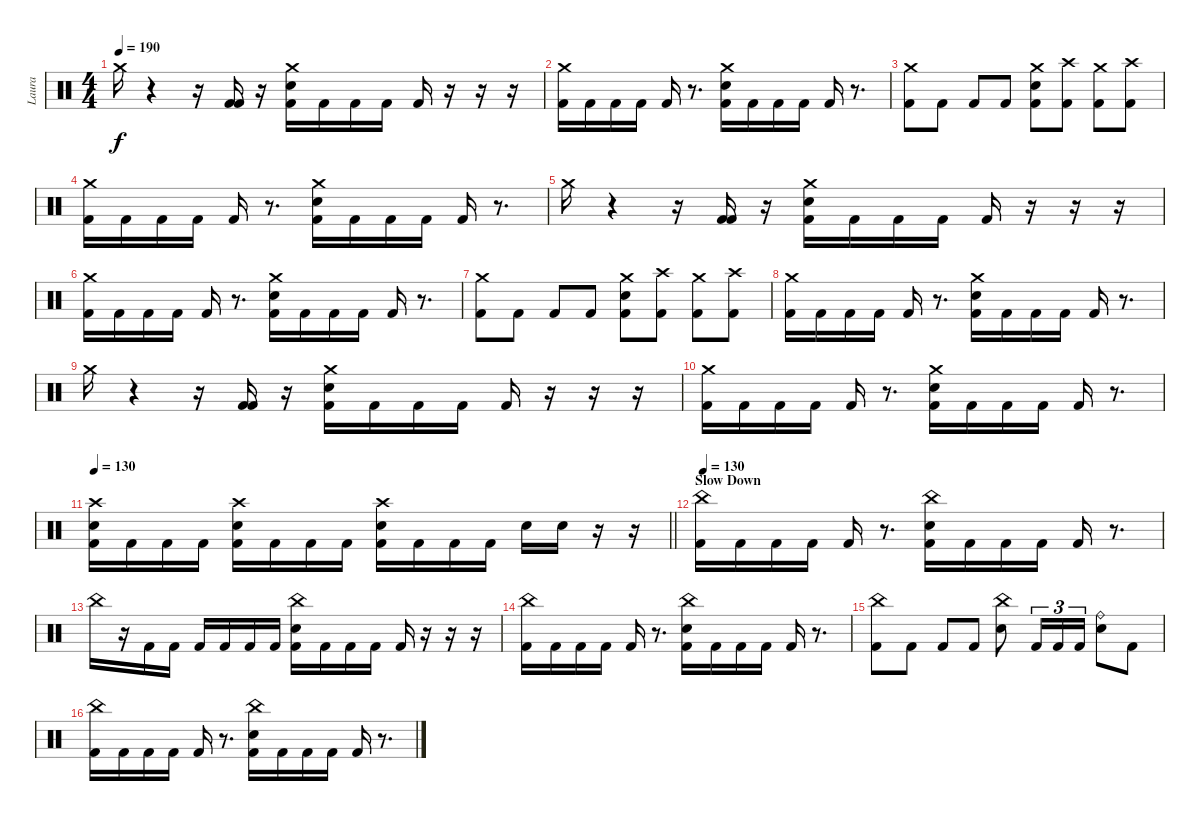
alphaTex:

\track ("Laura" "Laura") {instrument percussion}
\staff {score}
\articulation defaults
\ts (4 4)
\tempo 190
\clef neutral
\ks c "Crash medium (hit)".16{dy f}
r.4 r.16 ("Kick (hit) 2" "Kick (hit) 2").16 r.16 ("Crash medium (hit)" "Electric Snare (hit)" "Kick (hit) 2").16 "Kick (hit) 2".16 "Kick (hit) 2".16 "Kick (hit) 2".16 "Kick (hit) 2".16 r.16 r.16 r.16 |
("Crash medium (hit)" "Kick (hit) 2").16 "Kick (hit) 2".16 "Kick (hit) 2".16 "Kick (hit) 2".16 "Kick (hit) 2".16 r.8{d} ("Crash medium (hit)" "Electric Snare (hit)" "Kick (hit) 2").16 "Kick (hit) 2".16 "Kick (hit) 2".16 "Kick (hit) 2".16 "Kick (hit) 2".16 r.8{d} |
("Crash medium (hit)" "Kick (hit) 2").8 "Kick (hit) 2".8 "Kick (hit) 2".8 "Kick (hit) 2".8 ("Crash medium (hit)" "Electric Snare (hit)" "Kick (hit) 2").8 ("Crash high (hit)" "Kick (hit) 2").8 ("Crash medium (hit)" "Kick (hit) 2").8 ("Crash high (hit)" "Kick (hit) 2").8 |
("Crash medium (hit)" "Kick (hit) 2").16 "Kick (hit) 2".16 "Kick (hit) 2".16 "Kick (hit) 2".16 "Kick (hit) 2".16 r.8{d} ("Crash medium (hit)" "Electric Snare (hit)" "Kick (hit) 2").16 "Kick (hit) 2".16 "Kick (hit) 2".16 "Kick (hit) 2".16 "Kick (hit) 2".16 r.8{d} |
"Crash medium (hit)".16 r.4 r.16 ("Kick (hit) 2" "Kick (hit) 2").16 r.16 ("Crash medium (hit)" "Electric Snare (hit)" "Kick (hit) 2").16 "Kick (hit) 2".16 "Kick (hit) 2".16 "Kick (hit) 2".16 "Kick (hit) 2".16 r.16 r.16 r.16 |
("Crash medium (hit)" "Kick (hit) 2").16 "Kick (hit) 2".16 "Kick (hit) 2".16 "Kick (hit) 2".16 "Kick (hit) 2".16 r.8{d} ("Crash medium (hit)" "Electric Snare (hit)" "Kick (hit) 2").16 "Kick (hit) 2".16 "Kick (hit) 2".16 "Kick (hit) 2".16 "Kick (hit) 2".16 r.8{d} |
("Crash medium (hit)" "Kick (hit) 2").8 "Kick (hit) 2".8 "Kick (hit) 2".8 "Kick (hit) 2".8 ("Crash medium (hit)" "Electric Snare (hit)" "Kick (hit) 2").8 ("Crash high (hit)" "Kick (hit) 2").8 ("Crash medium (hit)" "Kick (hit) 2").8 ("Crash high (hit)" "Kick (hit) 2").8 |
("Crash medium (hit)" "Kick (hit) 2").16 "Kick (hit) 2".16 "Kick (hit) 2".16 "Kick (hit) 2".16 "Kick (hit) 2".16 r.8{d} ("Crash medium (hit)" "Electric Snare (hit)" "Kick (hit) 2").16 "Kick (hit) 2".16 "Kick (hit) 2".16 "Kick (hit) 2".16 "Kick (hit) 2".16 r.8{d} |
"Crash medium (hit)".16 r.4 r.16 ("Kick (hit) 2" "Kick (hit) 2").16 r.16 ("Crash medium (hit)" "Electric Snare (hit)" "Kick (hit) 2").16 "Kick (hit) 2".16 "Kick (hit) 2".16 "Kick (hit) 2".16 "Kick (hit) 2".16 r.16 r.16 r.16 |
("Crash medium (hit)" "Kick (hit) 2").16 "Kick (hit) 2".16 "Kick (hit) 2".16 "Kick (hit) 2".16 "Kick (hit) 2".16 r.8{d} ("Crash medium (hit)" "Electric Snare (hit)" "Kick (hit) 2").16 "Kick (hit) 2".16 "Kick (hit) 2".16 "Kick (hit) 2".16 "Kick (hit) 2".16 r.8{d} |
\tempo 130
\barLineRight lightlight
("Crash high (hit)" "Electric Snare (hit)" "Kick (hit) 2").16 "Kick (hit) 2".16 "Kick (hit) 2".16 "Kick (hit) 2".16 ("Crash high (hit)" "Electric Snare (hit)" "Kick (hit) 2").16 "Kick (hit) 2".16 "Kick (hit) 2".16 "Kick (hit) 2".16 ("Crash high (hit)" "Electric Snare (hit)" "Kick (hit) 2").16 "Kick (hit) 2".16 "Kick (hit) 2".16 "Kick (hit) 2".16 "Electric Snare (hit)".16 "Electric Snare (hit)".16 r.16 r.16 |
\section ("" "Slow Down")
\tempo 130
("China (hit)" "Kick (hit) 2").16 "Kick (hit) 2".16 "Kick (hit) 2".16 "Kick (hit) 2".16 "Kick (hit) 2".16 r.8{d} ("China (hit)" "Electric Snare (hit)" "Kick (hit) 2").16 "Kick (hit) 2".16 "Kick (hit) 2".16 "Kick (hit) 2".16 "Kick (hit) 2".16 r.8{d} |
"China (hit)".16 r.16 "Kick (hit) 2".16 "Kick (hit) 2".16 "Kick (hit) 2".16 "Kick (hit) 2".16 "Kick (hit) 2".16 "Kick (hit) 2".16 ("China (hit)" "Electric Snare (hit)" "Kick (hit) 2").16 "Kick (hit) 2".16 "Kick (hit) 2".16 "Kick (hit) 2".16 "Kick (hit) 2".16 r.16 r.16 r.16 |
("China (hit)" "Kick (hit) 2").16 "Kick (hit) 2".16 "Kick (hit) 2".16 "Kick (hit) 2".16 "Kick (hit) 2".16 r.8{d} ("China (hit)" "Electric Snare (hit)" "Kick (hit) 2").16 "Kick (hit) 2".16 "Kick (hit) 2".16 "Kick (hit) 2".16 "Kick (hit) 2".16 r.8{d} |
("China (hit)" "Kick (hit) 2").8 "Kick (hit) 2".8 "Kick (hit) 2".8 "Kick (hit) 2".8 ("China (hit)" "Electric Snare (hit)").8 "Kick (hit) 2".16{tu (3 2)} "Kick (hit) 2".16{tu (3 2)} "Kick (hit) 2".16{tu (3 2)} ("Ride (bell)" "Electric Snare (hit)").8 "Kick (hit) 2".8 |
("China (hit)" "Kick (hit) 2").16 "Kick (hit) 2".16 "Kick (hit) 2".16 "Kick (hit) 2".16 "Kick (hit) 2".16 r.8{d} ("China (hit)" "Electric Snare (hit)" "Kick (hit) 2").16 "Kick (hit) 2".16 "Kick (hit) 2".16 "Kick (hit) 2".16 "Kick (hit) 2".16 r.8{d}
